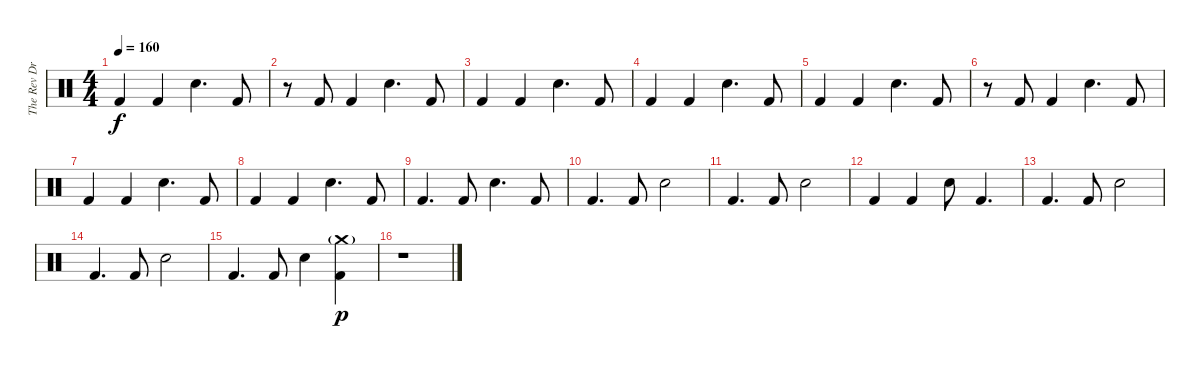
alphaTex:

\track ("The Rev Drum" "The Rev Dr") {instrument percussion}
\staff {score}
\articulation defaults
\ts (4 4)
\tempo 160
\clef neutral
\ks c "Kick (hit) 2".4{dy f} "Kick (hit) 2".4 "Electric Snare (hit)".4{d} "Kick (hit) 2".8
|
r.8 "Kick (hit) 2".8 "Kick (hit) 2".4 "Electric Snare (hit)".4{d} "Kick (hit) 2".8 |
"Kick (hit) 2".4 "Kick (hit) 2".4 "Electric Snare (hit)".4{d} "Kick (hit) 2".8 |
"Kick (hit) 2".4 "Kick (hit) 2".4 "Electric Snare (hit)".4{d} "Kick (hit) 2".8 |
"Kick (hit) 2".4 "Kick (hit) 2".4 "Electric Snare (hit)".4{d} "Kick (hit) 2".8 |
r.8 "Kick (hit) 2".8 "Kick (hit) 2".4 "Electric Snare (hit)".4{d} "Kick (hit) 2".8 |
"Kick (hit) 2".4 "Kick (hit) 2".4 "Electric Snare (hit)".4{d} "Kick (hit) 2".8 |
"Kick (hit) 2".4 "Kick (hit) 2".4 "Electric Snare (hit)".4{d} "Kick (hit) 2".8 |
"Kick (hit) 2".4{d} "Kick (hit) 2".8 "Electric Snare (hit)".4{d} "Kick (hit) 2".8 |
"Kick (hit) 2".4{d} "Kick (hit) 2".8 "Electric Snare (hit)".2 |
"Kick (hit) 2".4{d} "Kick (hit) 2".8 "Electric Snare (hit)".2 |
"Kick (hit) 2".4 "Kick (hit) 2".4 "Electric Snare (hit)".8 "Kick (hit) 2".4{d} |
"Kick (hit) 2".4{d} "Kick (hit) 2".8 "Electric Snare (hit)".2 |
"Kick (hit) 2".4{d} "Kick (hit) 2".8 "Electric Snare (hit)".2 |
"Kick (hit) 2".4{d} "Kick (hit) 2".8 "Electric Snare (hit)".4 ("Crash medium (hit)"{g} "Kick (hit) 2").4{dy p} |
r.1
